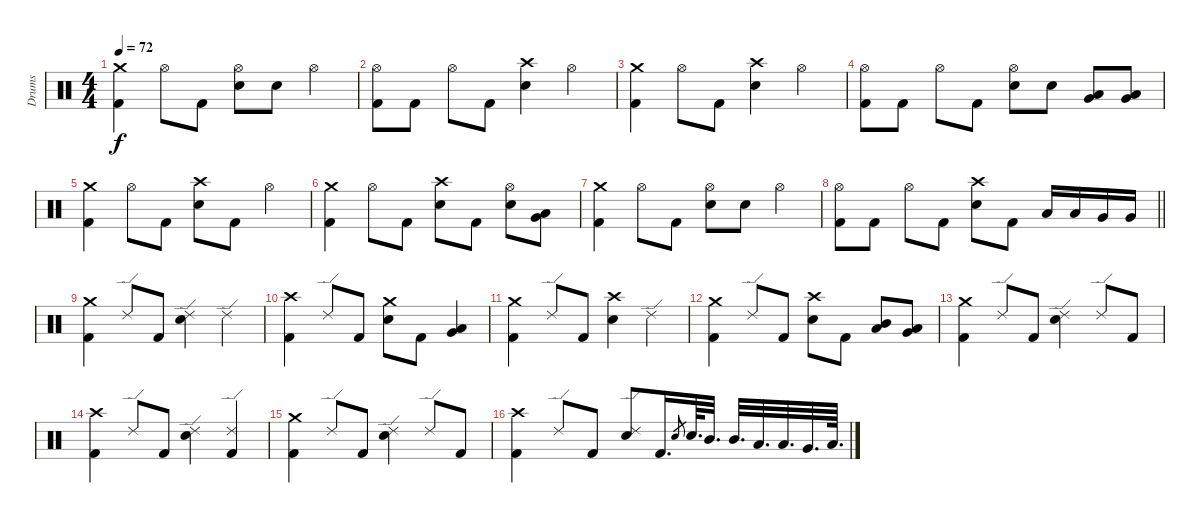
\track ("Drums" "Drums") {instrument percussion}
\staff {score}
\articulation defaults
\ts (4 4)
\tempo 72
\clef neutral
\ks c
("Crash medium (hit)" "Kick (hit) 2").4{dy f} "Hi-Hat (open)".8 "Kick (hit) 2".8 ("Hi-Hat (open)" "Snare (hit) 2").8 "Snare (hit) 2".8 "Hi-Hat (open)".4 |
("Hi-Hat (open)" "Kick (hit) 2").8 "Kick (hit) 2".8 "Hi-Hat (open)".8 "Kick (hit) 2".8 ("Crash high (hit)" "Snare (hit) 2").4 "Hi-Hat (open)".4 |
("Crash medium (hit)" "Kick (hit) 2").4 "Hi-Hat (open)".8 "Kick (hit) 2".8 ("Crash high (hit)" "Snare (hit) 2").4 "Hi-Hat (open)".4 |
("Hi-Hat (open)" "Kick (hit) 2").8 "Kick (hit) 2".8 "Hi-Hat (open)".8 "Kick (hit) 2".8 ("Hi-Hat (open)" "Snare (hit) 2").8 "Snare (hit) 2".8 ("Low Tom (hit)" "Very Low Tom (hit)").8 ("Very Low Tom (hit)" "Low Floor Tom (hit)").8 |
("Crash medium (hit)" "Kick (hit) 2").4 "Hi-Hat (open)".8 "Kick (hit) 2".8 ("Crash high (hit)" "Snare (hit) 2").8 "Kick (hit) 2".8 "Hi-Hat (open)".4 |
("Crash medium (hit)" "Kick (hit) 2").4 "Hi-Hat (open)".8 "Kick (hit) 2".8 ("Crash high (hit)" "Snare (hit) 2").8 "Kick (hit) 2".8 ("Hi-Hat (open)" "Snare (hit) 2").8 ("Low Tom (hit)" "Very Low Tom (hit)").8 |
("Crash medium (hit)" "Kick (hit) 2").4 "Hi-Hat (open)".8 "Kick (hit) 2".8 ("Hi-Hat (open)" "Snare (hit) 2").8 "Snare (hit) 2".8 "Hi-Hat (open)".4 |
\barLineRight lightlight
("Hi-Hat (open)" "Kick (hit) 2").8 "Kick (hit) 2".8 "Hi-Hat (open)".8 "Kick (hit) 2".8 ("Crash high (hit)" "Snare (hit) 2").8 "Kick (hit) 2".8 "Low Tom (hit)".16 "Low Tom (hit)".16 "Very Low Tom (hit)".16 "Very Low Tom (hit)".16 |
("Crash medium (hit)" "Kick (hit) 2").4 "Ride (edge) 2".8 "Kick (hit) 2".8 ("Ride (edge) 2" "Snare (hit) 2").4 "Ride (edge) 2".4 |
("Crash high (hit)" "Kick (hit) 2").4 "Ride (edge) 2".8 "Kick (hit) 2".8 ("Crash medium (hit)" "Snare (hit) 2").8 "Kick (hit) 2".8 ("Low Tom (hit)" "Very Low Tom (hit)").4 |
("Crash medium (hit)" "Kick (hit) 2").4 "Ride (edge) 2".8 "Kick (hit) 2".8 ("Crash high (hit)" "Snare (hit) 2").4 "Ride (edge) 2".4 |
("Crash medium (hit)" "Kick (hit) 2").4 "Ride (edge) 2".8 "Kick (hit) 2".8 ("Crash high (hit)" "Snare (hit) 2").8 "Kick (hit) 2".8 ("Mid Tom (hit)" "Low Tom (hit)").8 ("Low Tom (hit)" "Very Low Tom (hit)").8 |
("Crash medium (hit)" "Kick (hit) 2").4 "Ride (edge) 2".8 "Kick (hit) 2".8 ("Ride (edge) 2" "Snare (hit) 2").4 "Ride (edge) 2".8 "Kick (hit) 2".8 |
("Crash high (hit)" "Kick (hit) 2").4 "Ride (edge) 2".8 "Kick (hit) 2".8 ("Ride (edge) 2" "Snare (hit) 2").4 ("Ride (edge) 2" "Kick (hit) 2").4 |
("Crash medium (hit)" "Kick (hit) 2").4 "Ride (edge) 2".8 "Kick (hit) 2".8 ("Ride (edge) 2" "Snare (hit) 2").4 "Ride (edge) 2".8 "Kick (hit) 2".8 |
("Crash high (hit)" "Kick (hit) 2").4 "Ride (edge) 2".8 "Kick (hit) 2".8 ("Ride (edge) 2" "Snare (hit) 2").8 "Kick (hit) 2".16{d} "Snare (hit) 2".8{gr} "Snare (hit) 2".64{d} "Mid Tom (hit)".32{d} "Mid Tom (hit)".32{d} "Low Tom (hit)".32{d} "Low Tom (hit)".32{d} "Very Low Tom (hit)".32{d} "Low Floor Tom (hit)".64{d}
